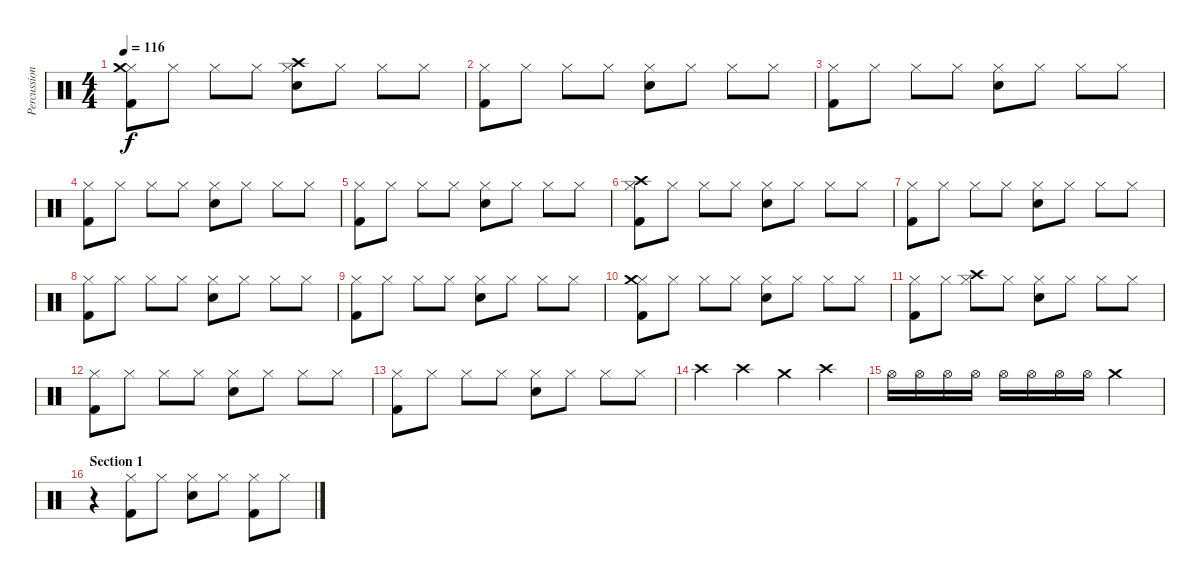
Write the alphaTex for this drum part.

\track ("Percussion" "Percussion") {instrument percussion}
\staff {score}
\articulation defaults
\ts (4 4)
\tempo 116
\clef neutral
\ks c
("Hi-Hat (closed)" "Kick (hit) 2" "Crash medium (hit)").8{dy f} "Hi-Hat (closed)".8 "Hi-Hat (closed)".8 "Hi-Hat (closed)".8 ("Hi-Hat (closed)" "Snare (hit) 2" "Crash high (hit)").8 "Hi-Hat (closed)".8 "Hi-Hat (closed)".8 "Hi-Hat (closed)".8 |
("Hi-Hat (closed)" "Kick (hit) 2").8 "Hi-Hat (closed)".8 "Hi-Hat (closed)".8 "Hi-Hat (closed)".8 ("Hi-Hat (closed)" "Snare (hit) 2").8 "Hi-Hat (closed)".8 "Hi-Hat (closed)".8 "Hi-Hat (closed)".8 |
("Hi-Hat (closed)" "Kick (hit) 2").8 "Hi-Hat (closed)".8 "Hi-Hat (closed)".8 "Hi-Hat (closed)".8 ("Hi-Hat (closed)" "Snare (hit) 2").8 "Hi-Hat (closed)".8 "Hi-Hat (closed)".8 "Hi-Hat (closed)".8 |
("Hi-Hat (closed)" "Kick (hit) 2").8 "Hi-Hat (closed)".8 "Hi-Hat (closed)".8 "Hi-Hat (closed)".8 ("Hi-Hat (closed)" "Snare (hit) 2").8 "Hi-Hat (closed)".8 "Hi-Hat (closed)".8 "Hi-Hat (closed)".8 |
("Hi-Hat (closed)" "Kick (hit) 2").8 "Hi-Hat (closed)".8 "Hi-Hat (closed)".8 "Hi-Hat (closed)".8 ("Hi-Hat (closed)" "Snare (hit) 2").8 "Hi-Hat (closed)".8 "Hi-Hat (closed)".8 "Hi-Hat (closed)".8 |
("Hi-Hat (closed)" "Kick (hit) 2" "Crash high (hit)").8 "Hi-Hat (closed)".8 "Hi-Hat (closed)".8 "Hi-Hat (closed)".8 ("Hi-Hat (closed)" "Snare (hit) 2").8 "Hi-Hat (closed)".8 "Hi-Hat (closed)".8 "Hi-Hat (closed)".8 |
("Hi-Hat (closed)" "Kick (hit) 2").8 "Hi-Hat (closed)".8 "Hi-Hat (closed)".8 "Hi-Hat (closed)".8 ("Hi-Hat (closed)" "Snare (hit) 2").8 "Hi-Hat (closed)".8 "Hi-Hat (closed)".8 "Hi-Hat (closed)".8 |
("Hi-Hat (closed)" "Kick (hit) 2").8 "Hi-Hat (closed)".8 "Hi-Hat (closed)".8 "Hi-Hat (closed)".8 ("Hi-Hat (closed)" "Snare (hit) 2").8 "Hi-Hat (closed)".8 "Hi-Hat (closed)".8 "Hi-Hat (closed)".8 |
("Hi-Hat (closed)" "Kick (hit) 2").8 "Hi-Hat (closed)".8 "Hi-Hat (closed)".8 "Hi-Hat (closed)".8 ("Hi-Hat (closed)" "Snare (hit) 2").8 "Hi-Hat (closed)".8 "Hi-Hat (closed)".8 "Hi-Hat (closed)".8 |
("Hi-Hat (closed)" "Kick (hit) 2" "Crash medium (hit)").8 "Hi-Hat (closed)".8 "Hi-Hat (closed)".8 "Hi-Hat (closed)".8 ("Hi-Hat (closed)" "Snare (hit) 2").8 "Hi-Hat (closed)".8 "Hi-Hat (closed)".8 "Hi-Hat (closed)".8 |
("Hi-Hat (closed)" "Kick (hit) 2").8 "Hi-Hat (closed)".8 ("Hi-Hat (closed)" "Crash high (hit)").8 "Hi-Hat (closed)".8 ("Hi-Hat (closed)" "Snare (hit) 2").8 "Hi-Hat (closed)".8 "Hi-Hat (closed)".8 "Hi-Hat (closed)".8 |
("Hi-Hat (closed)" "Kick (hit) 2").8 "Hi-Hat (closed)".8 "Hi-Hat (closed)".8 "Hi-Hat (closed)".8 ("Hi-Hat (closed)" "Snare (hit) 2").8 "Hi-Hat (closed)".8 "Hi-Hat (closed)".8 "Hi-Hat (closed)".8 |
("Hi-Hat (closed)" "Kick (hit) 2").8 "Hi-Hat (closed)".8 "Hi-Hat (closed)".8 "Hi-Hat (closed)".8 ("Hi-Hat (closed)" "Snare (hit) 2").8 "Hi-Hat (closed)".8 "Hi-Hat (closed)".8 "Hi-Hat (closed)".8 |
"Crash high (hit)".4 "Crash high (hit)".4 "Crash medium (hit)".4 "Crash high (hit)".4 |
"Hi-Hat (open)".16 "Hi-Hat (open)".16 "Hi-Hat (open)".16 "Hi-Hat (open)".16 "Hi-Hat (open)".16 "Hi-Hat (open)".16 "Hi-Hat (open)".16 "Hi-Hat (open)".16 "Crash medium (hit)".2 |
\section ("" "Section 1")
r.4 ("Hi-Hat (closed)" "Kick (hit) 2").8 "Hi-Hat (closed)".8 ("Hi-Hat (closed)" "Snare (hit) 2").8 "Hi-Hat (closed)".8 ("Hi-Hat (closed)" "Kick (hit) 2").8 "Hi-Hat (closed)".8
